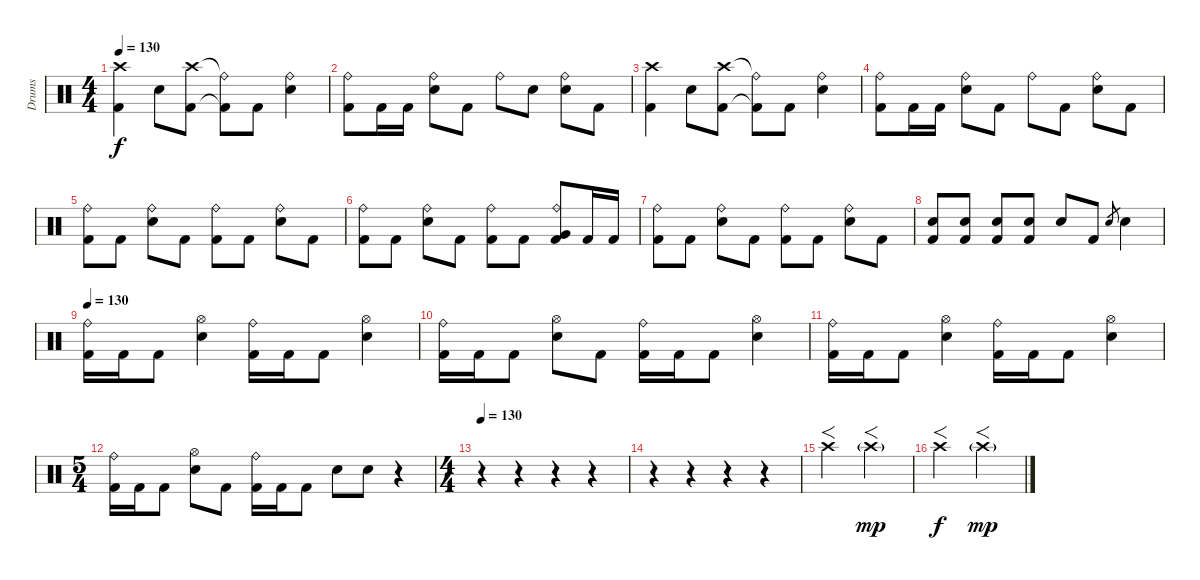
\track ("Drums" "Drums") {instrument percussion}
\staff {score}
\articulation defaults
\ts (4 4)
\tempo 130
\clef neutral
\ks c
("Crash high (hit)" "Kick (hit) 2").4{dy f} "Electric Snare (hit)".8 ("Crash high (hit)" "Kick (hit) 2").8 ("Ride (bell)"{t} "Kick (hit) 2"{t}).8 "Kick (hit) 2".8 ("Ride (bell)" "Electric Snare (hit)").4 |
("Ride (bell)" "Kick (hit) 2").8 "Kick (hit) 2".16 "Kick (hit) 2".16 ("Ride (bell)" "Electric Snare (hit)").8 "Kick (hit) 2".8 "Ride (bell)".8 "Electric Snare (hit)".8 ("Ride (bell)" "Electric Snare (hit)").8 "Kick (hit) 2".8 |
("Crash high (hit)" "Kick (hit) 2").4 "Electric Snare (hit)".8 ("Crash high (hit)" "Kick (hit) 2").8 ("Ride (bell)"{t} "Kick (hit) 2"{t}).8 "Kick (hit) 2".8 ("Ride (bell)" "Electric Snare (hit)").4 |
("Ride (bell)" "Kick (hit) 2").8 "Kick (hit) 2".16 "Kick (hit) 2".16 ("Ride (bell)" "Electric Snare (hit)").8 "Kick (hit) 2".8 "Ride (bell)".8 "Kick (hit) 2".8 ("Ride (bell)" "Electric Snare (hit)").8 "Kick (hit) 2".8 |
("Ride (bell)" "Kick (hit) 2").8 "Kick (hit) 2".8 ("Ride (bell)" "Electric Snare (hit)").8 "Kick (hit) 2".8 ("Ride (bell)" "Kick (hit) 2").8 "Kick (hit) 2".8 ("Ride (bell)" "Electric Snare (hit)").8 "Kick (hit) 2".8 |
("Ride (bell)" "Kick (hit) 2").8 "Kick (hit) 2".8 ("Ride (bell)" "Electric Snare (hit)").8 "Kick (hit) 2".8 ("Ride (bell)" "Kick (hit) 2").8 "Kick (hit) 2".8 ("Ride (bell)" "Very Low Tom (hit)" "Kick (hit) 2").8 "Kick (hit) 2".16 "Kick (hit) 2".16 |
("Ride (bell)" "Kick (hit) 2").8 "Kick (hit) 2".8 ("Ride (bell)" "Electric Snare (hit)").8 "Kick (hit) 2".8 ("Ride (bell)" "Kick (hit) 2").8 "Kick (hit) 2".8 ("Ride (bell)" "Electric Snare (hit)").8 "Kick (hit) 2".8 |
("Electric Snare (hit)" "Kick (hit) 2").8 ("Electric Snare (hit)" "Kick (hit) 2").8 ("Electric Snare (hit)" "Kick (hit) 2").8 ("Electric Snare (hit)" "Kick (hit) 2").8 "Electric Snare (hit)".8 "Kick (hit) 2".8 "Electric Snare (hit)".8{gr} "Electric Snare (hit)".4 |
\tempo 130
("Ride (bell)" "Kick (hit) 2").16 "Kick (hit) 2".16 "Kick (hit) 2".8 ("Hi-Hat (open)" "Electric Snare (hit)").4 ("Ride (bell)" "Kick (hit) 2").16 "Kick (hit) 2".16 "Kick (hit) 2".8 ("Hi-Hat (open)" "Electric Snare (hit)").4 |
("Ride (bell)" "Kick (hit) 2").16 "Kick (hit) 2".16 "Kick (hit) 2".8 ("Hi-Hat (open)" "Electric Snare (hit)").8 "Kick (hit) 2".8 ("Ride (bell)" "Kick (hit) 2").16 "Kick (hit) 2".16 "Kick (hit) 2".8 ("Hi-Hat (open)" "Electric Snare (hit)").4 |
("Ride (bell)" "Kick (hit) 2").16 "Kick (hit) 2".16 "Kick (hit) 2".8 ("Hi-Hat (open)" "Electric Snare (hit)").4 ("Ride (bell)" "Kick (hit) 2").16 "Kick (hit) 2".16 "Kick (hit) 2".8 ("Hi-Hat (open)" "Electric Snare (hit)").4 |
\ts (5 4)
("Ride (bell)" "Kick (hit) 2").16 "Kick (hit) 2".16 "Kick (hit) 2".8 ("Hi-Hat (open)" "Electric Snare (hit)").8 "Kick (hit) 2".8 ("Ride (bell)" "Kick (hit) 2").16 "Kick (hit) 2".16 "Kick (hit) 2".8 "Electric Snare (hit)".8 "Electric Snare (hit)".8 r.4 |
\ts (4 4)
\tempo 130
r.4 r.4 r.4 r.4 |
r.4 r.4 r.4 r.4 |
"Crash high (hit)".2{f} "Crash high (hit)"{g}.2{f dy mp} |
"Crash high (hit)".2{f dy f} "Crash high (hit)"{g}.2{f dy mp}
